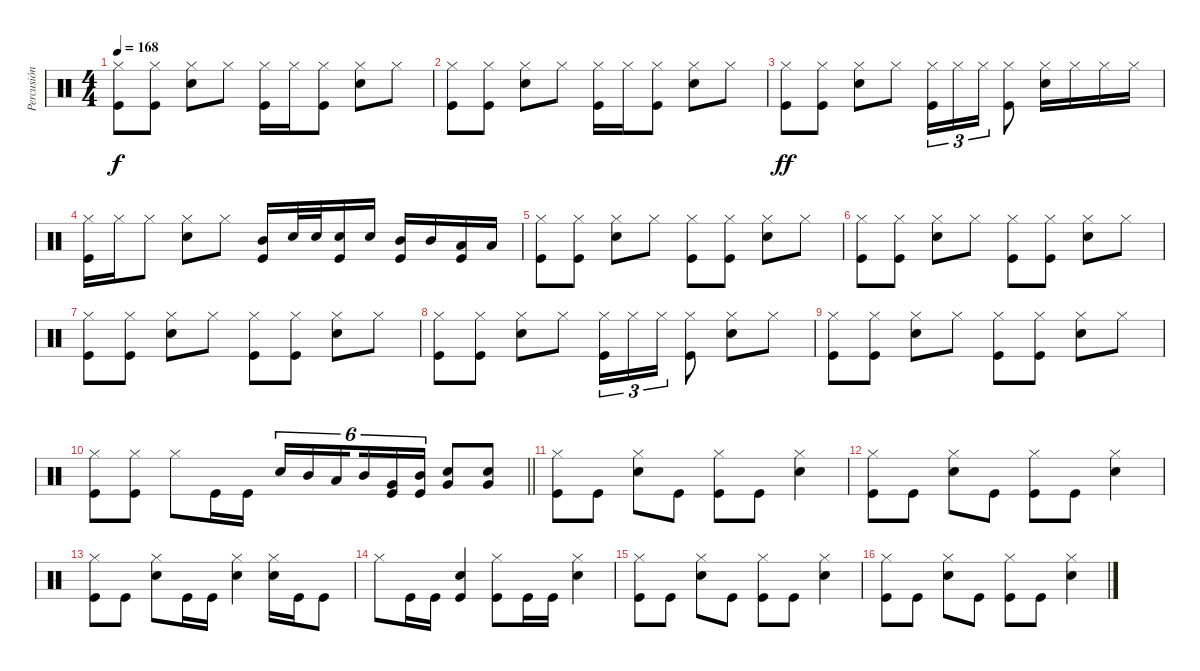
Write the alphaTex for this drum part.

\track ("Percusión" "Percusión") {instrument percussion}
\staff {score}
\articulation defaults
\ts (4 4)
\tempo 168
\clef neutral
\ks c
("Hi-Hat (closed)" "Kick (hit)").8{dy f} ("Hi-Hat (closed)" "Kick (hit)").8 ("Hi-Hat (closed)" "Snare (hit) 2").8 "Hi-Hat (closed)".8 ("Hi-Hat (closed)" "Kick (hit)").16 "Hi-Hat (closed)".16 ("Hi-Hat (closed)" "Kick (hit)").8 ("Hi-Hat (closed)" "Snare (hit) 2").8 "Hi-Hat (closed)".8 |
("Hi-Hat (closed)" "Kick (hit)").8 ("Hi-Hat (closed)" "Kick (hit)").8 ("Hi-Hat (closed)" "Snare (hit) 2").8 "Hi-Hat (closed)".8 ("Hi-Hat (closed)" "Kick (hit)").16 "Hi-Hat (closed)".16 ("Hi-Hat (closed)" "Kick (hit)").8 ("Hi-Hat (closed)" "Snare (hit) 2").8 "Hi-Hat (closed)".8 |
("Hi-Hat (closed)" "Kick (hit)").8{dy ff} ("Hi-Hat (closed)" "Kick (hit)").8 ("Hi-Hat (closed)" "Snare (hit) 2").8 "Hi-Hat (closed)".8 ("Hi-Hat (closed)" "Kick (hit)").16{tu (3 2)} "Hi-Hat (closed)".16{tu (3 2)} "Hi-Hat (closed)".16{tu (3 2)} ("Hi-Hat (closed)" "Kick (hit)").8 ("Hi-Hat (closed)" "Snare (hit) 2").16 "Hi-Hat (closed)".16 "Hi-Hat (closed)".16 "Hi-Hat (closed)".16 |
("Hi-Hat (closed)" "Kick (hit)").16 "Hi-Hat (closed)".16 "Hi-Hat (closed)".8 ("Hi-Hat (closed)" "Snare (hit) 2").8 "Hi-Hat (closed)".8 ("Mid Tom (hit)" "Kick (hit)").16 "Snare (hit) 2".32 "Snare (hit) 2".32 ("Snare (hit) 2" "Kick (hit)").16 "Snare (hit) 2".16 ("Mid Tom (hit)" "Kick (hit)").16 "Mid Tom (hit)".16 ("Low Tom (hit)" "Kick (hit)").16 "Low Tom (hit)".16 |
("Hi-Hat (closed)" "Kick (hit)").8 ("Hi-Hat (closed)" "Kick (hit)").8 ("Hi-Hat (closed)" "Snare (hit) 2").8 "Hi-Hat (closed)".8 ("Hi-Hat (closed)" "Kick (hit)").8 ("Hi-Hat (closed)" "Kick (hit)").8 ("Hi-Hat (closed)" "Snare (hit) 2").8 "Hi-Hat (closed)".8 |
("Hi-Hat (closed)" "Kick (hit)").8 ("Hi-Hat (closed)" "Kick (hit)").8 ("Hi-Hat (closed)" "Snare (hit) 2").8 "Hi-Hat (closed)".8 ("Hi-Hat (closed)" "Kick (hit)").8 ("Hi-Hat (closed)" "Kick (hit)").8 ("Hi-Hat (closed)" "Snare (hit) 2").8 "Hi-Hat (closed)".8 |
("Hi-Hat (closed)" "Kick (hit)").8 ("Hi-Hat (closed)" "Kick (hit)").8 ("Hi-Hat (closed)" "Snare (hit) 2").8 "Hi-Hat (closed)".8 ("Hi-Hat (closed)" "Kick (hit)").8 ("Hi-Hat (closed)" "Kick (hit)").8 ("Hi-Hat (closed)" "Snare (hit) 2").8 "Hi-Hat (closed)".8 |
("Hi-Hat (closed)" "Kick (hit)").8 ("Hi-Hat (closed)" "Kick (hit)").8 ("Hi-Hat (closed)" "Snare (hit) 2").8 "Hi-Hat (closed)".8 ("Hi-Hat (closed)" "Kick (hit)").16{tu (3 2)} "Hi-Hat (closed)".16{tu (3 2)} "Hi-Hat (closed)".16{tu (3 2)} ("Hi-Hat (closed)" "Kick (hit)").8 ("Hi-Hat (closed)" "Snare (hit) 2").8 "Hi-Hat (closed)".8 |
("Hi-Hat (closed)" "Kick (hit)").8 ("Hi-Hat (closed)" "Kick (hit)").8 ("Hi-Hat (closed)" "Snare (hit) 2").8 "Hi-Hat (closed)".8 ("Hi-Hat (closed)" "Kick (hit)").8 ("Hi-Hat (closed)" "Kick (hit)").8 ("Hi-Hat (closed)" "Snare (hit) 2").8 "Hi-Hat (closed)".8 |
\barLineRight lightlight
("Hi-Hat (closed)" "Kick (hit)").8 ("Hi-Hat (closed)" "Kick (hit)").8 "Hi-Hat (closed)".8 "Kick (hit)".16 "Kick (hit)".16 "Snare (hit) 2".16{tu (6 4)} "Mid Tom (hit)".16{tu (6 4)} "Low Tom (hit)".16{tu (6 4) beam splitsecondary} "Mid Tom (hit)".16{tu (6 4)} ("Very Low Tom (hit)" "Kick (hit)").16{tu (6 4)} ("Mid Tom (hit)" "Kick (hit)").16{tu (6 4)} ("Snare (hit) 2" "Very Low Tom (hit)").8 ("Snare (hit) 2" "Very Low Tom (hit)").8 |
("Hi-Hat (closed)" "Kick (hit)").8 "Kick (hit)".8 ("Hi-Hat (closed)" "Snare (hit) 2").8 "Kick (hit)".8 ("Hi-Hat (closed)" "Kick (hit)").8 "Kick (hit)".8 ("Hi-Hat (closed)" "Snare (hit) 2").4 |
("Hi-Hat (closed)" "Kick (hit)").8 "Kick (hit)".8 ("Hi-Hat (closed)" "Snare (hit) 2").8 "Kick (hit)".8 ("Hi-Hat (closed)" "Kick (hit)").8 "Kick (hit)".8 ("Hi-Hat (closed)" "Snare (hit) 2").4 |
("Hi-Hat (closed)" "Kick (hit)").8 "Kick (hit)".8 ("Hi-Hat (closed)" "Snare (hit) 2").8 "Kick (hit)".16 "Kick (hit)".16 ("Hi-Hat (closed)" "Snare (hit) 2").4 ("Hi-Hat (closed)" "Snare (hit) 2").16 "Kick (hit)".16 "Kick (hit)".8 |
"Hi-Hat (closed)".8 "Kick (hit)".16 "Kick (hit)".16 ("Snare (hit) 2" "Kick (hit)").4 ("Hi-Hat (closed)" "Kick (hit)").8 "Kick (hit)".16 "Kick (hit)".16 ("Hi-Hat (closed)" "Snare (hit) 2").4 |
("Hi-Hat (closed)" "Kick (hit)").8 "Kick (hit)".8 ("Hi-Hat (closed)" "Snare (hit) 2").8 "Kick (hit)".8 ("Hi-Hat (closed)" "Kick (hit)").8 "Kick (hit)".8 ("Hi-Hat (closed)" "Snare (hit) 2").4 |
("Hi-Hat (closed)" "Kick (hit)").8 "Kick (hit)".8 ("Hi-Hat (closed)" "Snare (hit) 2").8 "Kick (hit)".8 ("Hi-Hat (closed)" "Kick (hit)").8 "Kick (hit)".8 ("Hi-Hat (closed)" "Snare (hit) 2").4
